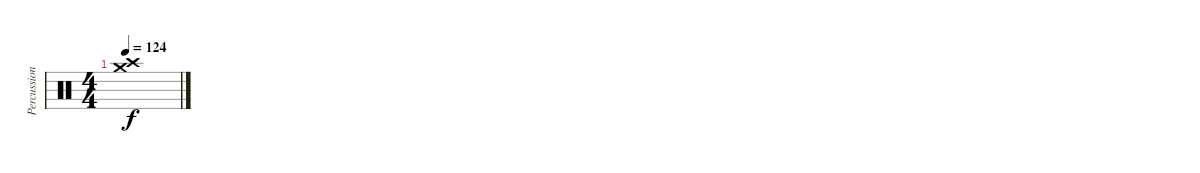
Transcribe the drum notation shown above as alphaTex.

\track ("Percussion" "Percussion") {instrument percussion}
\staff {score}
\articulation defaults
\ts (4 4)
\tempo 124
\clef neutral
\ks c
("Crash medium (hit)" "Crash high (hit)").1{dy f}
